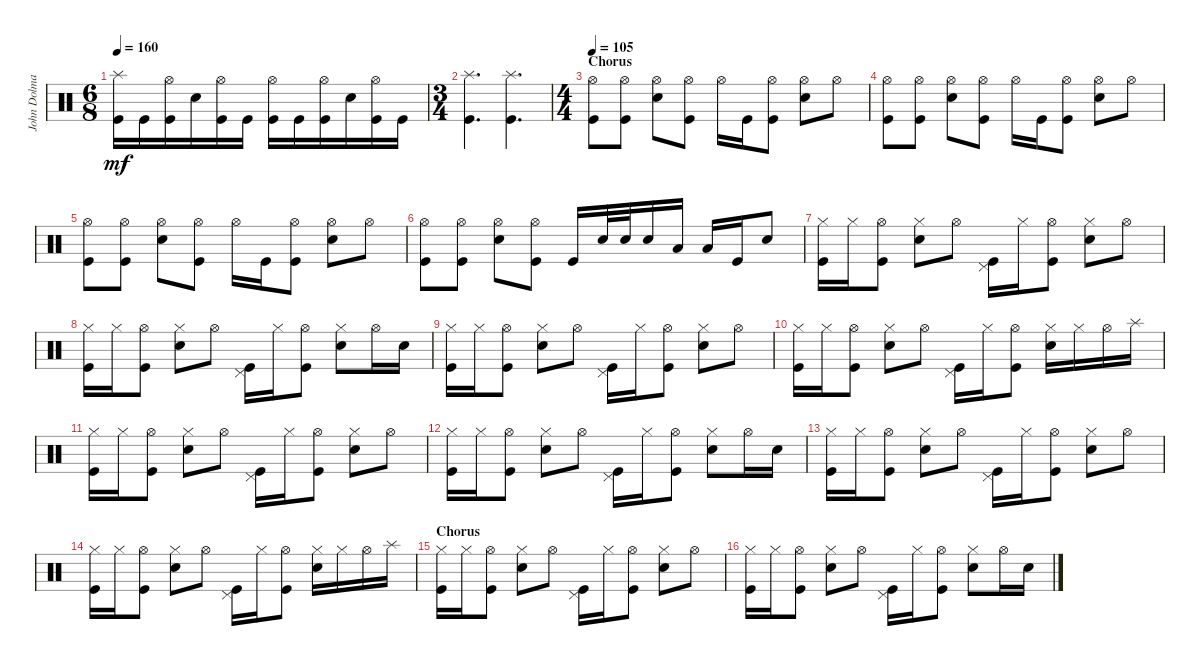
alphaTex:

\track ("John Dolmayan" "John Dolma") {instrument percussion}
\staff {score}
\articulation defaults
\ts (6 8)
\tempo 160
\clef neutral
\ks c
("Kick (hit)" "Splash (hit)").16{dy mf} "Kick (hit)".16 ("Kick (hit)" "Hi-Hat (open)").16 "Snare (hit) 2".16 ("Kick (hit)" "Hi-Hat (open)").16 "Kick (hit)".16 ("Kick (hit)" "Hi-Hat (open)").16 "Kick (hit)".16 ("Kick (hit)" "Hi-Hat (open)").16 "Snare (hit) 2".16 ("Kick (hit)" "Hi-Hat (open)").16 "Kick (hit)".16 |
\ts (3 4)
("Kick (hit)" "Splash (hit)").4{d} ("Splash (hit)" "Kick (hit)").4{d} |
\ts (4 4)
\section ("" "Chorus")
\tempo 105
("Kick (hit)" "Hi-Hat (open)").8 ("Kick (hit)" "Hi-Hat (open)").8 ("Snare (hit) 2" "Hi-Hat (open)").8 ("Kick (hit)" "Hi-Hat (open)").8 "Hi-Hat (open)".16 "Kick (hit)".16 ("Hi-Hat (open)" "Kick (hit)").8 ("Snare (hit) 2" "Hi-Hat (open)").8 "Hi-Hat (open)".8 |
("Kick (hit)" "Hi-Hat (open)").8 ("Kick (hit)" "Hi-Hat (open)").8 ("Snare (hit) 2" "Hi-Hat (open)").8 ("Kick (hit)" "Hi-Hat (open)").8 "Hi-Hat (open)".16 "Kick (hit)".16 ("Hi-Hat (open)" "Kick (hit)").8 ("Snare (hit) 2" "Hi-Hat (open)").8 "Hi-Hat (open)".8 |
("Kick (hit)" "Hi-Hat (open)").8 ("Kick (hit)" "Hi-Hat (open)").8 ("Snare (hit) 2" "Hi-Hat (open)").8 ("Kick (hit)" "Hi-Hat (open)").8 "Hi-Hat (open)".16 "Kick (hit)".16 ("Hi-Hat (open)" "Kick (hit)").8 ("Snare (hit) 2" "Hi-Hat (open)").8 "Hi-Hat (open)".8 |
("Kick (hit)" "Hi-Hat (open)").8 ("Kick (hit)" "Hi-Hat (open)").8 ("Snare (hit) 2" "Hi-Hat (open)").8 ("Hi-Hat (open)" "Kick (hit)").8 "Kick (hit)".16 "Snare (hit) 2".32 "Snare (hit) 2".32 "Snare (hit) 2".16 "Low Tom (hit)".16 "Low Tom (hit)".16 "Kick (hit)".16 "Snare (hit) 2".8 |
("Hi-Hat (closed)" "Kick (hit)").16 "Hi-Hat (closed)".16 ("Hi-Hat (open)" "Kick (hit)").8 ("Hi-Hat (closed)" "Snare (hit) 2").8 "Hi-Hat (open)".8 ("Pedal Hi-Hat (hit)" "Kick (hit)").16 "Hi-Hat (closed)".16 ("Hi-Hat (open)" "Kick (hit)").8 ("Hi-Hat (closed)" "Snare (hit) 2").8 "Hi-Hat (open)".8 |
("Hi-Hat (closed)" "Kick (hit)").16 "Hi-Hat (closed)".16 ("Hi-Hat (open)" "Kick (hit)").8 ("Hi-Hat (closed)" "Snare (hit) 2").8 "Hi-Hat (open)".8 ("Pedal Hi-Hat (hit)" "Kick (hit)").16 "Hi-Hat (closed)".16 ("Hi-Hat (open)" "Kick (hit)").8 ("Hi-Hat (closed)" "Snare (hit) 2").8 "Hi-Hat (open)".16 "Snare (hit) 2".16 |
("Hi-Hat (closed)" "Kick (hit)").16 "Hi-Hat (closed)".16 ("Hi-Hat (open)" "Kick (hit)").8 ("Hi-Hat (closed)" "Snare (hit) 2").8 "Hi-Hat (open)".8 ("Pedal Hi-Hat (hit)" "Kick (hit)").16 "Hi-Hat (closed)".16 ("Hi-Hat (open)" "Kick (hit)").8 ("Hi-Hat (closed)" "Snare (hit) 2").8 "Hi-Hat (open)".8 |
("Hi-Hat (closed)" "Kick (hit)").16 "Hi-Hat (closed)".16 ("Hi-Hat (open)" "Kick (hit)").8 ("Hi-Hat (closed)" "Snare (hit) 2").8 "Hi-Hat (open)".8 ("Pedal Hi-Hat (hit)" "Kick (hit)").16 "Hi-Hat (closed)".16 ("Hi-Hat (open)" "Kick (hit)").8 ("Snare (hit) 2" "Hi-Hat (closed)").16 "Hi-Hat (closed)".16 "Hi-Hat (open)".16 "Splash (hit)".16 |
("Hi-Hat (closed)" "Kick (hit)").16 "Hi-Hat (closed)".16 ("Hi-Hat (open)" "Kick (hit)").8 ("Hi-Hat (closed)" "Snare (hit) 2").8 "Hi-Hat (open)".8 ("Pedal Hi-Hat (hit)" "Kick (hit)").16 "Hi-Hat (closed)".16 ("Hi-Hat (open)" "Kick (hit)").8 ("Hi-Hat (closed)" "Snare (hit) 2").8 "Hi-Hat (open)".8 |
("Hi-Hat (closed)" "Kick (hit)").16 "Hi-Hat (closed)".16 ("Hi-Hat (open)" "Kick (hit)").8 ("Hi-Hat (closed)" "Snare (hit) 2").8 "Hi-Hat (open)".8 ("Pedal Hi-Hat (hit)" "Kick (hit)").16 "Hi-Hat (closed)".16 ("Hi-Hat (open)" "Kick (hit)").8 ("Hi-Hat (closed)" "Snare (hit) 2").8 "Hi-Hat (open)".16 "Snare (hit) 2".16 |
("Hi-Hat (closed)" "Kick (hit)").16 "Hi-Hat (closed)".16 ("Hi-Hat (open)" "Kick (hit)").8 ("Hi-Hat (closed)" "Snare (hit) 2").8 "Hi-Hat (open)".8 ("Pedal Hi-Hat (hit)" "Kick (hit)").16 "Hi-Hat (closed)".16 ("Hi-Hat (open)" "Kick (hit)").8 ("Hi-Hat (closed)" "Snare (hit) 2").8 "Hi-Hat (open)".8 |
("Hi-Hat (closed)" "Kick (hit)").16 "Hi-Hat (closed)".16 ("Hi-Hat (open)" "Kick (hit)").8 ("Hi-Hat (closed)" "Snare (hit) 2").8 "Hi-Hat (open)".8 ("Pedal Hi-Hat (hit)" "Kick (hit)").16 "Hi-Hat (closed)".16 ("Hi-Hat (open)" "Kick (hit)").8 ("Snare (hit) 2" "Hi-Hat (closed)").16 "Hi-Hat (closed)".16 "Hi-Hat (open)".16 "Splash (hit)".16 |
\section ("" "Chorus")
("Hi-Hat (closed)" "Kick (hit)").16 "Hi-Hat (closed)".16 ("Hi-Hat (open)" "Kick (hit)").8 ("Hi-Hat (closed)" "Snare (hit) 2").8 "Hi-Hat (open)".8 ("Pedal Hi-Hat (hit)" "Kick (hit)").16 "Hi-Hat (closed)".16 ("Hi-Hat (open)" "Kick (hit)").8 ("Hi-Hat (closed)" "Snare (hit) 2").8 "Hi-Hat (open)".8 |
("Hi-Hat (closed)" "Kick (hit)").16 "Hi-Hat (closed)".16 ("Hi-Hat (open)" "Kick (hit)").8 ("Hi-Hat (closed)" "Snare (hit) 2").8 "Hi-Hat (open)".8 ("Pedal Hi-Hat (hit)" "Kick (hit)").16 "Hi-Hat (closed)".16 ("Hi-Hat (open)" "Kick (hit)").8 ("Hi-Hat (closed)" "Snare (hit) 2").8 "Hi-Hat (open)".16 "Snare (hit) 2".16
